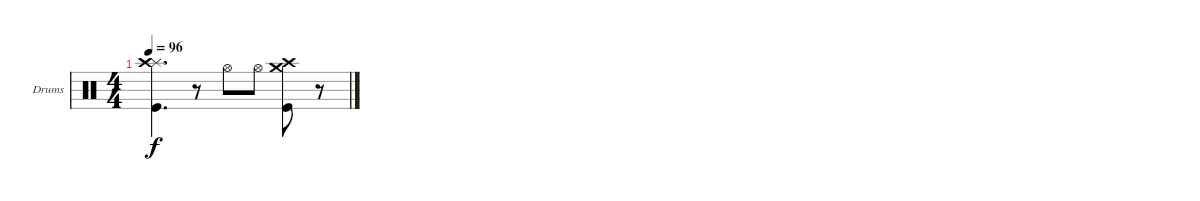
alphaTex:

\bracketExtendMode groupsimilarinstruments
\firstSystemTrackNameOrientation horizontal
\otherSystemsTrackNameOrientation horizontal
\track ("Drumkit" "Drums") {instrument percussion}
\staff {score}
\articulation defaults
\ts (4 4)
\tempo 96
\clef neutral
\ks c
("Splash (hit)" "Kick (hit)" "Crash high (hit)").4{d dy f} r.8 "Hi-Hat (open)".8 "Hi-Hat (open)".8 ("Kick (hit)" "Crash high (hit)" "Crash medium (hit)").8 r.8
